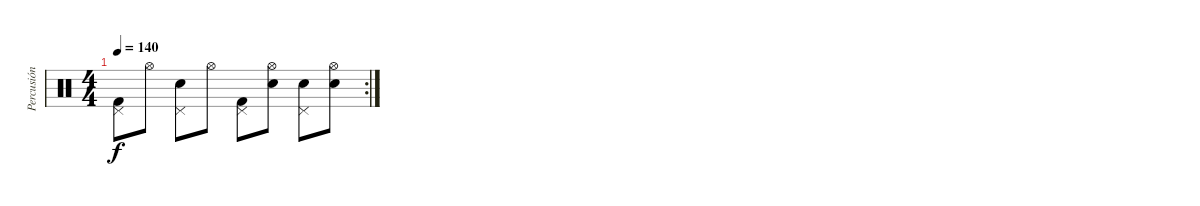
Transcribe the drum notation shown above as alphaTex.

\track ("Percusión" "Percusión") {instrument percussion}
\staff {score}
\articulation defaults
\rc 2
\ts (4 4)
\tempo 140
\clef neutral
\ks c
("Pedal Hi-Hat (hit)" "Kick (hit) 2").8{dy f} "Hi-Hat (open)".8 ("Pedal Hi-Hat (hit)" "Electric Snare (hit)").8 "Hi-Hat (open)".8 ("Pedal Hi-Hat (hit)" "Kick (hit) 2").8 ("Hi-Hat (open)" "Electric Snare (hit)").8 ("Pedal Hi-Hat (hit)" "Electric Snare (hit)").8 ("Hi-Hat (open)" "Electric Snare (hit)").8
